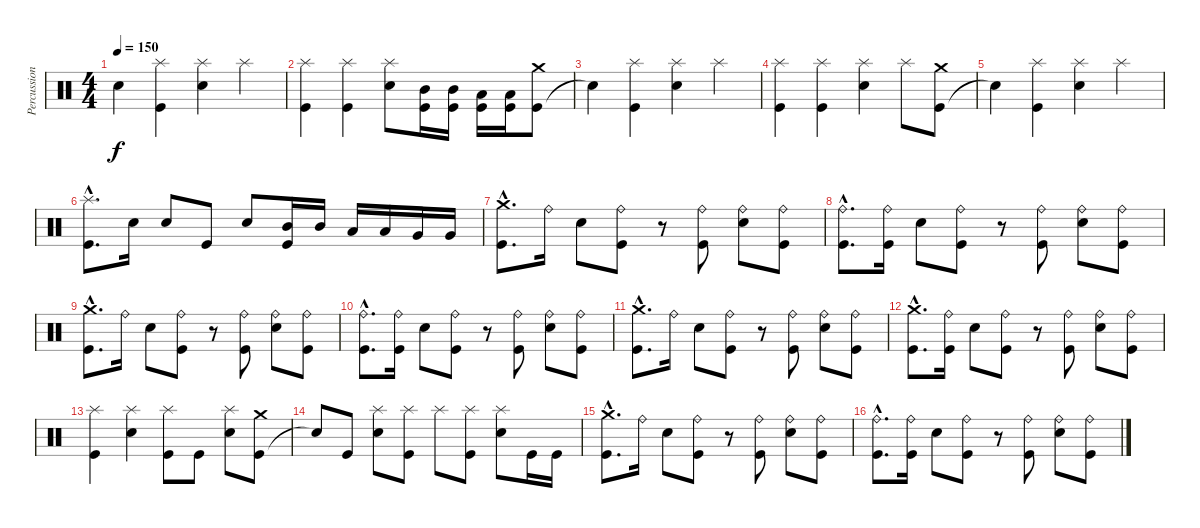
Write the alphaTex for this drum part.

\track ("Percussions" "Percussion") {instrument percussion}
\staff {score}
\articulation defaults
\ts (4 4)
\tempo 150
\clef neutral
\ks c "Snare (hit)"{t}.4{dy f}
("Kick (hit)" "Splash (hit)").4 ("Electric Snare (hit)" "Splash (hit)").4 "Splash (hit)".4 |
("Kick (hit)" "Splash (hit)").4 ("Kick (hit)" "Splash (hit)").4 ("Electric Snare (hit)" "Splash (hit)").8 ("Kick (hit)" "Mid Tom (hit)").16 ("Kick (hit)" "Mid Tom (hit)").16 ("Kick (hit)" "Low Tom (hit)").16 ("Kick (hit)" "Low Tom (hit)").16 ("Kick (hit)" "Crash medium (hit)").8 |
"Snare (hit)"{t}.4 ("Kick (hit)" "Splash (hit)").4 ("Electric Snare (hit)" "Splash (hit)").4 "Splash (hit)".4 |
("Kick (hit)" "Splash (hit)").4 ("Kick (hit)" "Splash (hit)").4 ("Electric Snare (hit)" "Splash (hit)").4 "Splash (hit)".8 ("Kick (hit)" "Crash medium (hit)").8 |
"Snare (hit)"{t}.4 ("Kick (hit)" "Splash (hit)").4 ("Electric Snare (hit)" "Splash (hit)").4 "Splash (hit)".4 |
("Kick (hit)"{hac} "Splash (hit)"{hac}).8{d} "Electric Snare (hit)".16 "Electric Snare (hit)".8 "Kick (hit)".8 "Electric Snare (hit)".8 ("Kick (hit)" "Mid Tom (hit)").16 "Mid Tom (hit)".16 "Low Tom (hit)".16 "Low Tom (hit)".16 "Very Low Tom (hit)".16 "Very Low Tom (hit)".16 |
("Kick (hit)"{hac} "Crash medium (hit)"{hac}).8{d} "Ride (bell)".16 "Electric Snare (hit)".8 ("Kick (hit)" "Ride (bell)").8 r.8 ("Kick (hit)" "Ride (bell)").8 ("Electric Snare (hit)" "Ride (bell)").8 ("Kick (hit)" "Ride (bell)").8 |
("Kick (hit)"{hac} "Ride (bell)"{hac}).8{d} ("Kick (hit)" "Ride (bell)").16 "Electric Snare (hit)".8 ("Kick (hit)" "Ride (bell)").8 r.8 ("Kick (hit)" "Ride (bell)").8 ("Electric Snare (hit)" "Ride (bell)").8 ("Kick (hit)" "Ride (bell)").8 |
("Kick (hit)"{hac} "Crash medium (hit)"{hac}).8{d} "Ride (bell)".16 "Electric Snare (hit)".8 ("Kick (hit)" "Ride (bell)").8 r.8 ("Kick (hit)" "Ride (bell)").8 ("Electric Snare (hit)" "Ride (bell)").8 ("Kick (hit)" "Ride (bell)").8 |
("Kick (hit)"{hac} "Ride (bell)"{hac}).8{d} ("Kick (hit)" "Ride (bell)").16 "Electric Snare (hit)".8 ("Kick (hit)" "Ride (bell)").8 r.8 ("Kick (hit)" "Ride (bell)").8 ("Electric Snare (hit)" "Ride (bell)").8 ("Kick (hit)" "Ride (bell)").8 |
("Kick (hit)"{hac} "Crash medium (hit)"{hac}).8{d} "Ride (bell)".16 "Electric Snare (hit)".8 ("Kick (hit)" "Ride (bell)").8 r.8 ("Kick (hit)" "Ride (bell)").8 ("Electric Snare (hit)" "Ride (bell)").8 ("Kick (hit)" "Ride (bell)").8 |
("Kick (hit)"{hac} "Crash medium (hit)"{hac}).8{d} ("Kick (hit)" "Ride (bell)").16 "Electric Snare (hit)".8 ("Kick (hit)" "Ride (bell)").8 r.8 ("Kick (hit)" "Ride (bell)").8 ("Electric Snare (hit)" "Ride (bell)").8 ("Kick (hit)" "Ride (bell)").8 |
("Kick (hit)" "Splash (hit)").4 ("Electric Snare (hit)" "Splash (hit)").4 ("Kick (hit)" "Splash (hit)").8 "Kick (hit)".8 ("Electric Snare (hit)" "Splash (hit)").8 ("Kick (hit)" "Crash medium (hit)").8 |
"Snare (hit)"{t}.8 "Kick (hit)".8 ("Electric Snare (hit)" "Splash (hit)").8 ("Kick (hit)" "Splash (hit)").8 "Splash (hit)".8 ("Kick (hit)" "Splash (hit)").8 ("Electric Snare (hit)" "Splash (hit)").8 "Kick (hit)".16 "Kick (hit)".16 |
("Kick (hit)"{hac} "Crash medium (hit)"{hac}).8{d} "Ride (bell)".16 "Electric Snare (hit)".8 ("Kick (hit)" "Ride (bell)").8 r.8 ("Kick (hit)" "Ride (bell)").8 ("Electric Snare (hit)" "Ride (bell)").8 ("Kick (hit)" "Ride (bell)").8 |
("Kick (hit)"{hac} "Ride (bell)"{hac}).8{d} ("Kick (hit)" "Ride (bell)").16 "Electric Snare (hit)".8 ("Kick (hit)" "Ride (bell)").8 r.8 ("Kick (hit)" "Ride (bell)").8 ("Electric Snare (hit)" "Ride (bell)").8 ("Kick (hit)" "Ride (bell)").8
